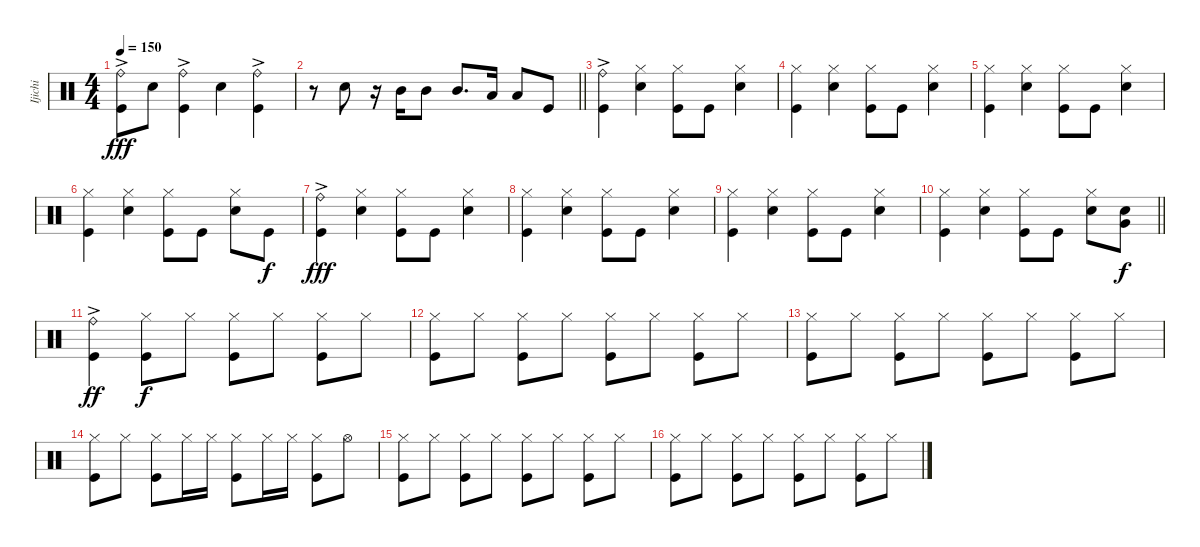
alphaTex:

\track ("Ijichi" "Ijichi") {instrument percussion}
\staff {score}
\articulation defaults
\ts (4 4)
\tempo 150
\clef neutral
\ks c
("Ride (bell)"{ac} "Kick (hit)").8{dy fff} "Snare (hit) 2".8 ("Ride (bell)"{ac} "Kick (hit)").4 "Snare (hit) 2".4 ("Ride (bell)"{ac} "Kick (hit)").4 |
\barLineRight lightlight
r.8 "Snare (hit) 2".8 r.16 "Mid Tom (hit)".16 "Mid Tom (hit)".8 "Mid Tom (hit)".8{d} "Low Tom (hit)".16 "Low Tom (hit)".8 "Kick (hit)".8 |
("Ride (bell)"{ac} "Kick (hit)").4 ("Hi-Hat (closed)" "Snare (hit) 2").4 ("Hi-Hat (closed)" "Kick (hit)").8 "Kick (hit)".8 ("Hi-Hat (closed)" "Snare (hit) 2").4 |
("Hi-Hat (closed)" "Kick (hit)").4 ("Hi-Hat (closed)" "Snare (hit) 2").4 ("Hi-Hat (closed)" "Kick (hit)").8 "Kick (hit)".8 ("Hi-Hat (closed)" "Snare (hit) 2").4 |
("Hi-Hat (closed)" "Kick (hit)").4 ("Hi-Hat (closed)" "Snare (hit) 2").4 ("Hi-Hat (closed)" "Kick (hit)").8 "Kick (hit)".8 ("Hi-Hat (closed)" "Snare (hit) 2").4 |
("Hi-Hat (closed)" "Kick (hit)").4 ("Hi-Hat (closed)" "Snare (hit) 2").4 ("Hi-Hat (closed)" "Kick (hit)").8 "Kick (hit)".8 ("Hi-Hat (closed)" "Snare (hit) 2").8 "Kick (hit)".8{dy f} |
("Ride (bell)"{ac} "Kick (hit)").4{dy fff} ("Hi-Hat (closed)" "Snare (hit) 2").4 ("Hi-Hat (closed)" "Kick (hit)").8 "Kick (hit)".8 ("Hi-Hat (closed)" "Snare (hit) 2").4 |
("Hi-Hat (closed)" "Kick (hit)").4 ("Hi-Hat (closed)" "Snare (hit) 2").4 ("Hi-Hat (closed)" "Kick (hit)").8 "Kick (hit)".8 ("Hi-Hat (closed)" "Snare (hit) 2").4 |
("Hi-Hat (closed)" "Kick (hit)").4 ("Hi-Hat (closed)" "Snare (hit) 2").4 ("Hi-Hat (closed)" "Kick (hit)").8 "Kick (hit)".8 ("Hi-Hat (closed)" "Snare (hit) 2").4 |
\barLineRight lightlight
("Hi-Hat (closed)" "Kick (hit)").4 ("Hi-Hat (closed)" "Snare (hit) 2").4 ("Hi-Hat (closed)" "Kick (hit)").8 "Kick (hit)".8 ("Hi-Hat (closed)" "Snare (hit) 2").8 ("Snare (hit) 2" "Very Low Tom (hit)").8{dy f} |
("Ride (bell)"{ac} "Kick (hit)").4{dy ff} ("Hi-Hat (closed)" "Kick (hit)").8{dy f} "Hi-Hat (closed)".8 ("Hi-Hat (closed)" "Kick (hit)").8 "Hi-Hat (closed)".8 ("Hi-Hat (closed)" "Kick (hit)").8 "Hi-Hat (closed)".8 |
("Hi-Hat (closed)" "Kick (hit)").8 "Hi-Hat (closed)".8 ("Hi-Hat (closed)" "Kick (hit)").8 "Hi-Hat (closed)".8 ("Hi-Hat (closed)" "Kick (hit)").8 "Hi-Hat (closed)".8 ("Hi-Hat (closed)" "Kick (hit)").8 "Hi-Hat (closed)".8 |
("Hi-Hat (closed)" "Kick (hit)").8 "Hi-Hat (closed)".8 ("Hi-Hat (closed)" "Kick (hit)").8 "Hi-Hat (closed)".8 ("Hi-Hat (closed)" "Kick (hit)").8 "Hi-Hat (closed)".8 ("Hi-Hat (closed)" "Kick (hit)").8 "Hi-Hat (closed)".8 |
("Hi-Hat (closed)" "Kick (hit)").8 "Hi-Hat (closed)".8 ("Hi-Hat (closed)" "Kick (hit)").8 "Hi-Hat (closed)".16 "Hi-Hat (closed)".16 ("Hi-Hat (closed)" "Kick (hit)").8 "Hi-Hat (closed)".16 "Hi-Hat (closed)".16 ("Hi-Hat (closed)" "Kick (hit)").8 "Hi-Hat (open)".8 |
("Hi-Hat (closed)" "Kick (hit)").8 "Hi-Hat (closed)".8 ("Hi-Hat (closed)" "Kick (hit)").8 "Hi-Hat (closed)".8 ("Hi-Hat (closed)" "Kick (hit)").8 "Hi-Hat (closed)".8 ("Hi-Hat (closed)" "Kick (hit)").8 "Hi-Hat (closed)".8 |
("Hi-Hat (closed)" "Kick (hit)").8 "Hi-Hat (closed)".8 ("Hi-Hat (closed)" "Kick (hit)").8 "Hi-Hat (closed)".8 ("Hi-Hat (closed)" "Kick (hit)").8 "Hi-Hat (closed)".8 ("Hi-Hat (closed)" "Kick (hit)").8 "Hi-Hat (closed)".8
